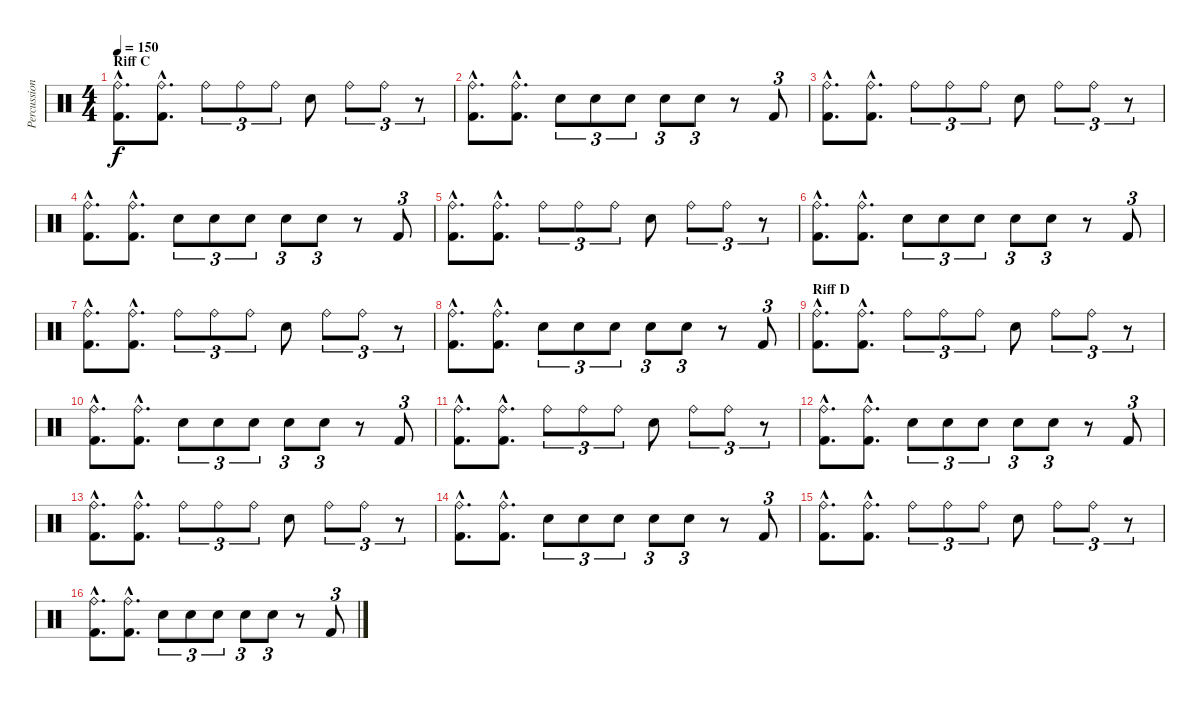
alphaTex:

\track ("Percussion" "Percussion") {instrument percussion}
\staff {score}
\articulation defaults
\ts (4 4)
\section ("" "Riff C")
\tempo 150
\clef neutral
\ks c
("Kick (hit) 2"{hac} "Ride (bell)"{hac}).8{d dy f} ("Kick (hit) 2"{hac} "Ride (bell)"{hac}).8{d} "Ride (bell)".8{tu (3 2)} "Ride (bell)".8{tu (3 2)} "Ride (bell)".8{tu (3 2)} "Snare (hit) 2".8 "Ride (bell)".8{tu (3 2)} "Ride (bell)".8{tu (3 2)} r.8{tu (3 2)} |
("Kick (hit) 2"{hac} "Ride (bell)"{hac}).8{d} ("Kick (hit) 2"{hac} "Ride (bell)"{hac}).8{d} "Electric Snare (hit)".8{tu (3 2)} "Electric Snare (hit)".8{tu (3 2)} "Electric Snare (hit)".8{tu (3 2)} "Snare (hit) 2".8{tu (3 2)} "Snare (hit) 2".8{tu (3 2)} r.8 "Kick (hit) 2".8{tu (3 2)} |
("Kick (hit) 2"{hac} "Ride (bell)"{hac}).8{d} ("Kick (hit) 2"{hac} "Ride (bell)"{hac}).8{d} "Ride (bell)".8{tu (3 2)} "Ride (bell)".8{tu (3 2)} "Ride (bell)".8{tu (3 2)} "Snare (hit) 2".8 "Ride (bell)".8{tu (3 2)} "Ride (bell)".8{tu (3 2)} r.8{tu (3 2)} |
("Kick (hit) 2"{hac} "Ride (bell)"{hac}).8{d} ("Kick (hit) 2"{hac} "Ride (bell)"{hac}).8{d} "Electric Snare (hit)".8{tu (3 2)} "Electric Snare (hit)".8{tu (3 2)} "Electric Snare (hit)".8{tu (3 2)} "Snare (hit) 2".8{tu (3 2)} "Snare (hit) 2".8{tu (3 2)} r.8 "Kick (hit) 2".8{tu (3 2)} |
("Kick (hit) 2"{hac} "Ride (bell)"{hac}).8{d} ("Kick (hit) 2"{hac} "Ride (bell)"{hac}).8{d} "Ride (bell)".8{tu (3 2)} "Ride (bell)".8{tu (3 2)} "Ride (bell)".8{tu (3 2)} "Snare (hit) 2".8 "Ride (bell)".8{tu (3 2)} "Ride (bell)".8{tu (3 2)} r.8{tu (3 2)} |
("Kick (hit) 2"{hac} "Ride (bell)"{hac}).8{d} ("Kick (hit) 2"{hac} "Ride (bell)"{hac}).8{d} "Electric Snare (hit)".8{tu (3 2)} "Electric Snare (hit)".8{tu (3 2)} "Electric Snare (hit)".8{tu (3 2)} "Snare (hit) 2".8{tu (3 2)} "Snare (hit) 2".8{tu (3 2)} r.8 "Kick (hit) 2".8{tu (3 2)} |
("Kick (hit) 2"{hac} "Ride (bell)"{hac}).8{d} ("Kick (hit) 2"{hac} "Ride (bell)"{hac}).8{d} "Ride (bell)".8{tu (3 2)} "Ride (bell)".8{tu (3 2)} "Ride (bell)".8{tu (3 2)} "Snare (hit) 2".8 "Ride (bell)".8{tu (3 2)} "Ride (bell)".8{tu (3 2)} r.8{tu (3 2)} |
("Kick (hit) 2"{hac} "Ride (bell)"{hac}).8{d} ("Kick (hit) 2"{hac} "Ride (bell)"{hac}).8{d} "Electric Snare (hit)".8{tu (3 2)} "Electric Snare (hit)".8{tu (3 2)} "Electric Snare (hit)".8{tu (3 2)} "Snare (hit) 2".8{tu (3 2)} "Snare (hit) 2".8{tu (3 2)} r.8 "Kick (hit) 2".8{tu (3 2)} |
\section ("" "Riff D")
("Kick (hit) 2"{hac} "Ride (bell)"{hac}).8{d} ("Kick (hit) 2"{hac} "Ride (bell)"{hac}).8{d} "Ride (bell)".8{tu (3 2)} "Ride (bell)".8{tu (3 2)} "Ride (bell)".8{tu (3 2)} "Snare (hit) 2".8 "Ride (bell)".8{tu (3 2)} "Ride (bell)".8{tu (3 2)} r.8{tu (3 2)} |
("Kick (hit) 2"{hac} "Ride (bell)"{hac}).8{d} ("Kick (hit) 2"{hac} "Ride (bell)"{hac}).8{d} "Electric Snare (hit)".8{tu (3 2)} "Electric Snare (hit)".8{tu (3 2)} "Electric Snare (hit)".8{tu (3 2)} "Snare (hit) 2".8{tu (3 2)} "Snare (hit) 2".8{tu (3 2)} r.8 "Kick (hit) 2".8{tu (3 2)} |
("Kick (hit) 2"{hac} "Ride (bell)"{hac}).8{d} ("Kick (hit) 2"{hac} "Ride (bell)"{hac}).8{d} "Ride (bell)".8{tu (3 2)} "Ride (bell)".8{tu (3 2)} "Ride (bell)".8{tu (3 2)} "Snare (hit) 2".8 "Ride (bell)".8{tu (3 2)} "Ride (bell)".8{tu (3 2)} r.8{tu (3 2)} |
("Kick (hit) 2"{hac} "Ride (bell)"{hac}).8{d} ("Kick (hit) 2"{hac} "Ride (bell)"{hac}).8{d} "Electric Snare (hit)".8{tu (3 2)} "Electric Snare (hit)".8{tu (3 2)} "Electric Snare (hit)".8{tu (3 2)} "Snare (hit) 2".8{tu (3 2)} "Snare (hit) 2".8{tu (3 2)} r.8 "Kick (hit) 2".8{tu (3 2)} |
("Kick (hit) 2"{hac} "Ride (bell)"{hac}).8{d} ("Kick (hit) 2"{hac} "Ride (bell)"{hac}).8{d} "Ride (bell)".8{tu (3 2)} "Ride (bell)".8{tu (3 2)} "Ride (bell)".8{tu (3 2)} "Snare (hit) 2".8 "Ride (bell)".8{tu (3 2)} "Ride (bell)".8{tu (3 2)} r.8{tu (3 2)} |
("Kick (hit) 2"{hac} "Ride (bell)"{hac}).8{d} ("Kick (hit) 2"{hac} "Ride (bell)"{hac}).8{d} "Electric Snare (hit)".8{tu (3 2)} "Electric Snare (hit)".8{tu (3 2)} "Electric Snare (hit)".8{tu (3 2)} "Snare (hit) 2".8{tu (3 2)} "Snare (hit) 2".8{tu (3 2)} r.8 "Kick (hit) 2".8{tu (3 2)} |
("Kick (hit) 2"{hac} "Ride (bell)"{hac}).8{d} ("Kick (hit) 2"{hac} "Ride (bell)"{hac}).8{d} "Ride (bell)".8{tu (3 2)} "Ride (bell)".8{tu (3 2)} "Ride (bell)".8{tu (3 2)} "Snare (hit) 2".8 "Ride (bell)".8{tu (3 2)} "Ride (bell)".8{tu (3 2)} r.8{tu (3 2)} |
("Kick (hit) 2"{hac} "Ride (bell)"{hac}).8{d} ("Kick (hit) 2"{hac} "Ride (bell)"{hac}).8{d} "Electric Snare (hit)".8{tu (3 2)} "Electric Snare (hit)".8{tu (3 2)} "Electric Snare (hit)".8{tu (3 2)} "Snare (hit) 2".8{tu (3 2)} "Snare (hit) 2".8{tu (3 2)} r.8 "Kick (hit) 2".8{tu (3 2)}
